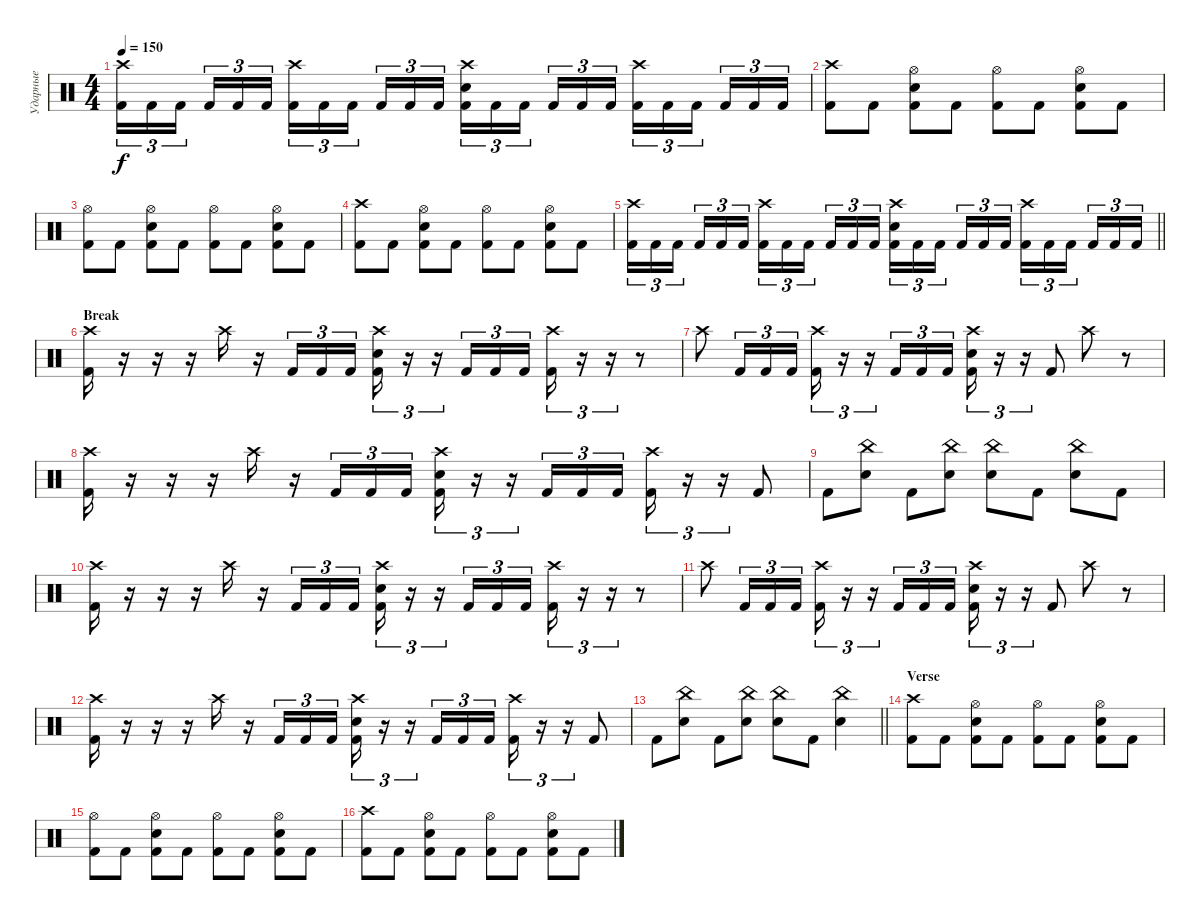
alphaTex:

\track ("Ударные" "Ударные") {instrument percussion}
\staff {score}
\articulation defaults
\ts (4 4)
\tempo 150
\clef neutral
\ks c
("Crash high (hit)" "Kick (hit) 2").16{tu (3 2) dy f} "Kick (hit) 2".16{tu (3 2)} "Kick (hit) 2".16{tu (3 2) beam splitsecondary} "Kick (hit) 2".16{tu (3 2)} "Kick (hit) 2".16{tu (3 2)} "Kick (hit) 2".16{tu (3 2)} ("Crash high (hit)" "Kick (hit) 2").16{tu (3 2)} "Kick (hit) 2".16{tu (3 2)} "Kick (hit) 2".16{tu (3 2) beam splitsecondary} "Kick (hit) 2".16{tu (3 2)} "Kick (hit) 2".16{tu (3 2)} "Kick (hit) 2".16{tu (3 2)} ("Crash high (hit)" "Electric Snare (hit)" "Kick (hit) 2").16{tu (3 2)} "Kick (hit) 2".16{tu (3 2)} "Kick (hit) 2".16{tu (3 2) beam splitsecondary} "Kick (hit) 2".16{tu (3 2)} "Kick (hit) 2".16{tu (3 2)} "Kick (hit) 2".16{tu (3 2)} ("Crash high (hit)" "Kick (hit) 2").16{tu (3 2)} "Kick (hit) 2".16{tu (3 2)} "Kick (hit) 2".16{tu (3 2) beam splitsecondary} "Kick (hit) 2".16{tu (3 2)} "Kick (hit) 2".16{tu (3 2)} "Kick (hit) 2".16{tu (3 2)} |
("Crash high (hit)" "Kick (hit) 2").8 "Kick (hit) 2".8 ("Hi-Hat (open)" "Electric Snare (hit)" "Kick (hit) 2").8 "Kick (hit) 2".8 ("Hi-Hat (open)" "Kick (hit) 2").8 "Kick (hit) 2".8 ("Hi-Hat (open)" "Electric Snare (hit)" "Kick (hit) 2").8 "Kick (hit) 2".8 |
("Hi-Hat (open)" "Kick (hit) 2").8 "Kick (hit) 2".8 ("Hi-Hat (open)" "Electric Snare (hit)" "Kick (hit) 2").8 "Kick (hit) 2".8 ("Hi-Hat (open)" "Kick (hit) 2").8 "Kick (hit) 2".8 ("Hi-Hat (open)" "Electric Snare (hit)" "Kick (hit) 2").8 "Kick (hit) 2".8 |
("Crash high (hit)" "Kick (hit) 2").8 "Kick (hit) 2".8 ("Hi-Hat (open)" "Electric Snare (hit)" "Kick (hit) 2").8 "Kick (hit) 2".8 ("Hi-Hat (open)" "Kick (hit) 2").8 "Kick (hit) 2".8 ("Hi-Hat (open)" "Electric Snare (hit)" "Kick (hit) 2").8 "Kick (hit) 2".8 |
\barLineRight lightlight
("Crash high (hit)" "Kick (hit) 2").16{tu (3 2)} "Kick (hit) 2".16{tu (3 2)} "Kick (hit) 2".16{tu (3 2) beam splitsecondary} "Kick (hit) 2".16{tu (3 2)} "Kick (hit) 2".16{tu (3 2)} "Kick (hit) 2".16{tu (3 2)} ("Crash high (hit)" "Kick (hit) 2").16{tu (3 2)} "Kick (hit) 2".16{tu (3 2)} "Kick (hit) 2".16{tu (3 2) beam splitsecondary} "Kick (hit) 2".16{tu (3 2)} "Kick (hit) 2".16{tu (3 2)} "Kick (hit) 2".16{tu (3 2)} ("Crash high (hit)" "Electric Snare (hit)" "Kick (hit) 2").16{tu (3 2)} "Kick (hit) 2".16{tu (3 2)} "Kick (hit) 2".16{tu (3 2) beam splitsecondary} "Kick (hit) 2".16{tu (3 2)} "Kick (hit) 2".16{tu (3 2)} "Kick (hit) 2".16{tu (3 2)} ("Crash high (hit)" "Kick (hit) 2").16{tu (3 2)} "Kick (hit) 2".16{tu (3 2)} "Kick (hit) 2".16{tu (3 2) beam splitsecondary} "Kick (hit) 2".16{tu (3 2)} "Kick (hit) 2".16{tu (3 2)} "Kick (hit) 2".16{tu (3 2)} |
\section ("" "Break")
("Crash high (hit)" "Kick (hit) 2").16 r.16 r.16 r.16 "Crash high (hit)".16 r.16 "Kick (hit) 2".16{tu (3 2)} "Kick (hit) 2".16{tu (3 2)} "Kick (hit) 2".16{tu (3 2)} ("Crash high (hit)" "Electric Snare (hit)" "Kick (hit) 2").16{tu (3 2)} r.16{tu (3 2)} r.16{tu (3 2)} "Kick (hit) 2".16{tu (3 2)} "Kick (hit) 2".16{tu (3 2)} "Kick (hit) 2".16{tu (3 2)} ("Crash high (hit)" "Kick (hit) 2").16{tu (3 2)} r.16{tu (3 2)} r.16{tu (3 2)} r.8 |
"Crash high (hit)".8 "Kick (hit) 2".16{tu (3 2)} "Kick (hit) 2".16{tu (3 2)} "Kick (hit) 2".16{tu (3 2)} ("Crash high (hit)" "Kick (hit) 2").16{tu (3 2)} r.16{tu (3 2)} r.16{tu (3 2)} "Kick (hit) 2".16{tu (3 2)} "Kick (hit) 2".16{tu (3 2)} "Kick (hit) 2".16{tu (3 2)} ("Crash high (hit)" "Electric Snare (hit)" "Kick (hit) 2").16{tu (3 2)} r.16{tu (3 2)} r.16{tu (3 2)} "Kick (hit) 2".8 "Crash high (hit)".8 r.8 |
("Crash high (hit)" "Kick (hit) 2").16 r.16 r.16 r.16 "Crash high (hit)".16 r.16 "Kick (hit) 2".16{tu (3 2)} "Kick (hit) 2".16{tu (3 2)} "Kick (hit) 2".16{tu (3 2)} ("Crash high (hit)" "Electric Snare (hit)" "Kick (hit) 2").16{tu (3 2)} r.16{tu (3 2)} r.16{tu (3 2)} "Kick (hit) 2".16{tu (3 2)} "Kick (hit) 2".16{tu (3 2)} "Kick (hit) 2".16{tu (3 2)} ("Crash high (hit)" "Kick (hit) 2").16{tu (3 2)} r.16{tu (3 2)} r.16{tu (3 2)} "Kick (hit) 2".8 |
"Kick (hit) 2".8 ("China (hit)" "Electric Snare (hit)").8 "Kick (hit) 2".8 ("China (hit)" "Electric Snare (hit)").8 ("China (hit)" "Electric Snare (hit)").8 "Kick (hit) 2".8 ("China (hit)" "Electric Snare (hit)").8 "Kick (hit) 2".8 |
("Crash high (hit)" "Kick (hit) 2").16 r.16 r.16 r.16 "Crash high (hit)".16 r.16 "Kick (hit) 2".16{tu (3 2)} "Kick (hit) 2".16{tu (3 2)} "Kick (hit) 2".16{tu (3 2)} ("Crash high (hit)" "Electric Snare (hit)" "Kick (hit) 2").16{tu (3 2)} r.16{tu (3 2)} r.16{tu (3 2)} "Kick (hit) 2".16{tu (3 2)} "Kick (hit) 2".16{tu (3 2)} "Kick (hit) 2".16{tu (3 2)} ("Crash high (hit)" "Kick (hit) 2").16{tu (3 2)} r.16{tu (3 2)} r.16{tu (3 2)} r.8 |
"Crash high (hit)".8 "Kick (hit) 2".16{tu (3 2)} "Kick (hit) 2".16{tu (3 2)} "Kick (hit) 2".16{tu (3 2)} ("Crash high (hit)" "Kick (hit) 2").16{tu (3 2)} r.16{tu (3 2)} r.16{tu (3 2)} "Kick (hit) 2".16{tu (3 2)} "Kick (hit) 2".16{tu (3 2)} "Kick (hit) 2".16{tu (3 2)} ("Crash high (hit)" "Electric Snare (hit)" "Kick (hit) 2").16{tu (3 2)} r.16{tu (3 2)} r.16{tu (3 2)} "Kick (hit) 2".8 "Crash high (hit)".8 r.8 |
("Crash high (hit)" "Kick (hit) 2").16 r.16 r.16 r.16 "Crash high (hit)".16 r.16 "Kick (hit) 2".16{tu (3 2)} "Kick (hit) 2".16{tu (3 2)} "Kick (hit) 2".16{tu (3 2)} ("Crash high (hit)" "Electric Snare (hit)" "Kick (hit) 2").16{tu (3 2)} r.16{tu (3 2)} r.16{tu (3 2)} "Kick (hit) 2".16{tu (3 2)} "Kick (hit) 2".16{tu (3 2)} "Kick (hit) 2".16{tu (3 2)} ("Crash high (hit)" "Kick (hit) 2").16{tu (3 2)} r.16{tu (3 2)} r.16{tu (3 2)} "Kick (hit) 2".8 |
\barLineRight lightlight "Kick (hit) 2".8
("China (hit)" "Electric Snare (hit)").8 "Kick (hit) 2".8 ("China (hit)" "Electric Snare (hit)").8 ("China (hit)" "Electric Snare (hit)").8 "Kick (hit) 2".8 ("China (hit)" "Electric Snare (hit)").4 |
\section ("" "Verse")
("Crash high (hit)" "Kick (hit) 2").8 "Kick (hit) 2".8 ("Hi-Hat (open)" "Electric Snare (hit)" "Kick (hit) 2").8 "Kick (hit) 2".8 ("Hi-Hat (open)" "Kick (hit) 2").8 "Kick (hit) 2".8 ("Hi-Hat (open)" "Electric Snare (hit)" "Kick (hit) 2").8 "Kick (hit) 2".8 |
("Hi-Hat (open)" "Kick (hit) 2").8 "Kick (hit) 2".8 ("Hi-Hat (open)" "Electric Snare (hit)" "Kick (hit) 2").8 "Kick (hit) 2".8 ("Hi-Hat (open)" "Kick (hit) 2").8 "Kick (hit) 2".8 ("Hi-Hat (open)" "Electric Snare (hit)" "Kick (hit) 2").8 "Kick (hit) 2".8 |
("Crash high (hit)" "Kick (hit) 2").8 "Kick (hit) 2".8 ("Hi-Hat (open)" "Electric Snare (hit)" "Kick (hit) 2").8 "Kick (hit) 2".8 ("Hi-Hat (open)" "Kick (hit) 2").8 "Kick (hit) 2".8 ("Hi-Hat (open)" "Electric Snare (hit)" "Kick (hit) 2").8 "Kick (hit) 2".8
